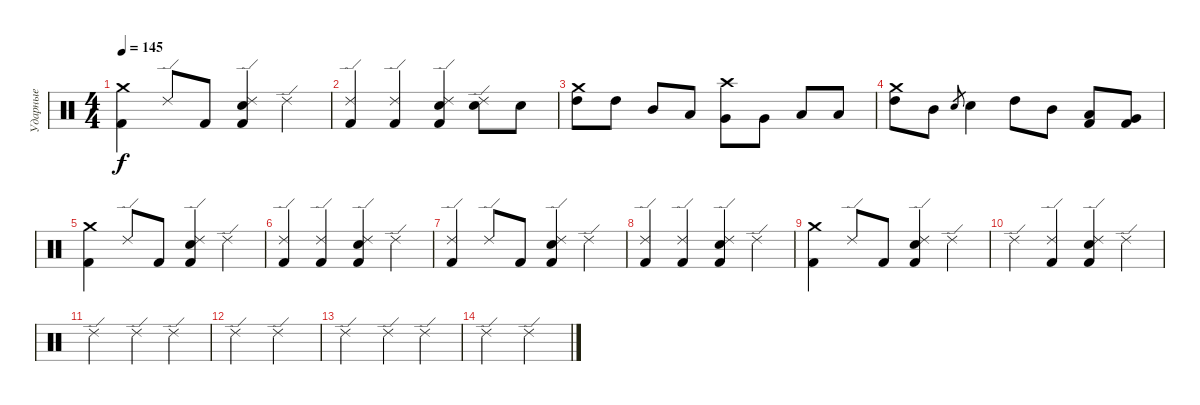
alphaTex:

\track ("Ударные" "Ударные") {instrument percussion}
\staff {score}
\articulation defaults
\ts (4 4)
\tempo 145
\clef neutral
\ks c
("Crash medium (hit)" "Kick (hit) 2").4{dy f} "Ride (edge) 2".8 "Kick (hit) 2".8 ("Ride (edge) 2" "Electric Snare (hit)" "Kick (hit) 2").4 "Ride (edge) 2".4 |
("Ride (edge) 2" "Kick (hit) 2").4 ("Ride (edge) 2" "Kick (hit) 2").4 ("Ride (edge) 2" "Electric Snare (hit)" "Kick (hit) 2").4 ("Electric Snare (hit)" "Ride (edge) 2").8 "Electric Snare (hit)".8 |
("High Tom (hit)" "Crash medium (hit)").8 "High Tom (hit)".8 "Mid Tom (hit)".8 "Low Tom (hit)".8 ("Very Low Tom (hit)" "Crash high (hit)").8 "Very Low Tom (hit)".8 "Low Floor Tom (hit)".8 "Low Floor Tom (hit)".8 |
("Crash medium (hit)" "High Tom (hit)").8 "Mid Tom (hit)".8 "Electric Snare (hit)".8{gr} "Electric Snare (hit)".4 "High Tom (hit)".8 "Mid Tom (hit)".8 ("Low Tom (hit)" "Kick (hit) 2").8 ("Very Low Tom (hit)" "Kick (hit) 2").8 |
("Crash medium (hit)" "Kick (hit) 2").4 "Ride (edge) 2".8 "Kick (hit) 2".8 ("Ride (edge) 2" "Electric Snare (hit)" "Kick (hit) 2").4 "Ride (edge) 2".4 |
("Ride (edge) 2" "Kick (hit) 2").4 ("Ride (edge) 2" "Kick (hit) 2").4 ("Ride (edge) 2" "Electric Snare (hit)" "Kick (hit) 2").4 "Ride (edge) 2".4 |
("Ride (edge) 2" "Kick (hit) 2").4 "Ride (edge) 2".8 "Kick (hit) 2".8 ("Ride (edge) 2" "Electric Snare (hit)" "Kick (hit) 2").4 "Ride (edge) 2".4 |
("Ride (edge) 2" "Kick (hit) 2").4 ("Ride (edge) 2" "Kick (hit) 2").4 ("Ride (edge) 2" "Electric Snare (hit)" "Kick (hit) 2").4 "Ride (edge) 2".4 |
("Crash medium (hit)" "Kick (hit) 2").4 "Ride (edge) 2".8 "Kick (hit) 2".8 ("Ride (edge) 2" "Electric Snare (hit)" "Kick (hit) 2").4 "Ride (edge) 2".4 |
"Ride (edge) 2".4 ("Ride (edge) 2" "Kick (hit) 2").4 ("Ride (edge) 2" "Electric Snare (hit)" "Kick (hit) 2").4 "Ride (edge) 2".4 |
"Ride (edge) 2".2 "Ride (edge) 2".4 "Ride (edge) 2".4 |
"Ride (edge) 2".2 "Ride (edge) 2".2 |
"Ride (edge) 2".2 "Ride (edge) 2".4 "Ride (edge) 2".4 |
"Ride (edge) 2".2 "Ride (edge) 2".2
